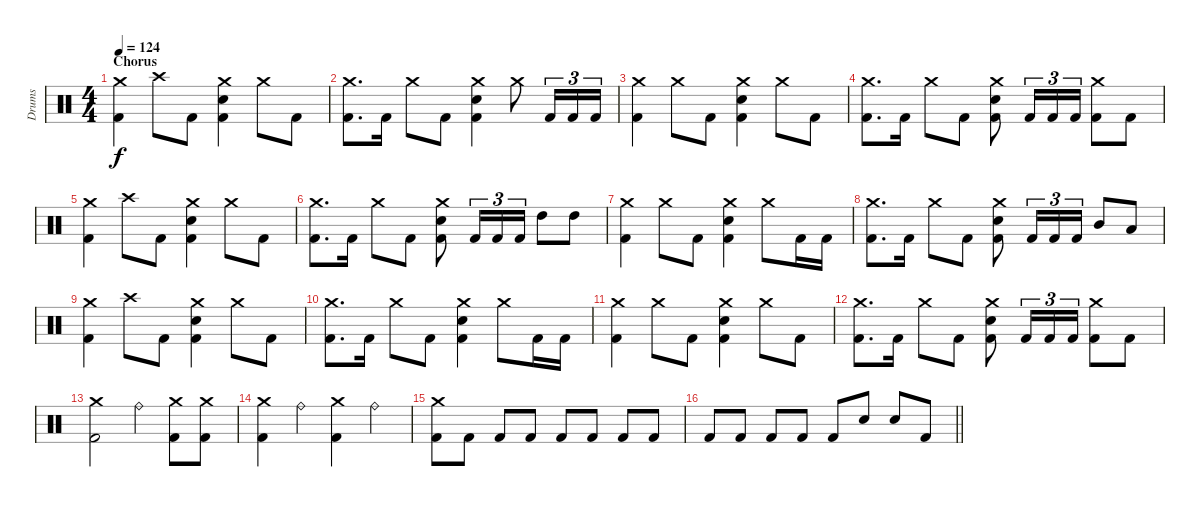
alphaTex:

\track ("Drums" "Drums") {instrument percussion}
\staff {score}
\articulation defaults
\ts (4 4)
\section ("" "Chorus")
\tempo 124
\clef neutral
\ks c
("Crash medium (hit)" "Kick (hit) 2").4{dy f} "Crash high (hit)".8 "Kick (hit) 2".8 ("Crash medium (hit)" "Electric Snare (hit)" "Kick (hit) 2").4 "Crash medium (hit)".8 "Kick (hit) 2".8 |
("Crash medium (hit)" "Kick (hit) 2").8{d} "Kick (hit) 2".16 "Crash medium (hit)".8 "Kick (hit) 2".8 ("Crash medium (hit)" "Electric Snare (hit)" "Kick (hit) 2").4 "Crash medium (hit)".8 "Kick (hit) 2".16{tu (3 2)} "Kick (hit) 2".16{tu (3 2)} "Kick (hit) 2".16{tu (3 2)} |
("Crash medium (hit)" "Kick (hit) 2").4 "Crash medium (hit)".8 "Kick (hit) 2".8 ("Crash medium (hit)" "Electric Snare (hit)" "Kick (hit) 2").4 "Crash medium (hit)".8 "Kick (hit) 2".8 |
("Crash medium (hit)" "Kick (hit) 2").8{d} "Kick (hit) 2".16 "Crash medium (hit)".8 "Kick (hit) 2".8 ("Crash medium (hit)" "Electric Snare (hit)" "Kick (hit) 2").8 "Kick (hit) 2".16{tu (3 2)} "Kick (hit) 2".16{tu (3 2)} "Kick (hit) 2".16{tu (3 2)} ("Crash medium (hit)" "Kick (hit) 2").8 "Kick (hit) 2".8 |
("Crash medium (hit)" "Kick (hit) 2").4 "Crash high (hit)".8 "Kick (hit) 2".8 ("Crash medium (hit)" "Electric Snare (hit)" "Kick (hit) 2").4 "Crash medium (hit)".8 "Kick (hit) 2".8 |
("Crash medium (hit)" "Kick (hit) 2").8{d} "Kick (hit) 2".16 "Crash medium (hit)".8 "Kick (hit) 2".8 ("Crash medium (hit)" "Electric Snare (hit)" "Kick (hit) 2").8 "Kick (hit) 2".16{tu (3 2)} "Kick (hit) 2".16{tu (3 2)} "Kick (hit) 2".16{tu (3 2)} "High Tom (hit)".8 "High Tom (hit)".8 |
("Crash medium (hit)" "Kick (hit) 2").4 "Crash medium (hit)".8 "Kick (hit) 2".8 ("Crash medium (hit)" "Electric Snare (hit)" "Kick (hit) 2").4 "Crash medium (hit)".8 "Kick (hit) 2".16 "Kick (hit) 2".16 |
("Crash medium (hit)" "Kick (hit) 2").8{d} "Kick (hit) 2".16 "Crash medium (hit)".8 "Kick (hit) 2".8 ("Crash medium (hit)" "Electric Snare (hit)" "Kick (hit) 2").8 "Kick (hit) 2".16{tu (3 2)} "Kick (hit) 2".16{tu (3 2)} "Kick (hit) 2".16{tu (3 2)} "Mid Tom (hit)".8 "Low Tom (hit)".8 |
("Crash medium (hit)" "Kick (hit) 2").4 "Crash high (hit)".8 "Kick (hit) 2".8 ("Crash medium (hit)" "Electric Snare (hit)" "Kick (hit) 2").4 "Crash medium (hit)".8 "Kick (hit) 2".8 |
("Crash medium (hit)" "Kick (hit) 2").8{d} "Kick (hit) 2".16 "Crash medium (hit)".8 "Kick (hit) 2".8 ("Crash medium (hit)" "Electric Snare (hit)" "Kick (hit) 2").4 "Crash medium (hit)".8 "Kick (hit) 2".16 "Kick (hit) 2".16 |
("Crash medium (hit)" "Kick (hit) 2").4 "Crash medium (hit)".8 "Kick (hit) 2".8 ("Crash medium (hit)" "Electric Snare (hit)" "Kick (hit) 2").4 "Crash medium (hit)".8 "Kick (hit) 2".8 |
("Crash medium (hit)" "Kick (hit) 2").8{d} "Kick (hit) 2".16 "Crash medium (hit)".8 "Kick (hit) 2".8 ("Crash medium (hit)" "Electric Snare (hit)" "Kick (hit) 2").8 "Kick (hit) 2".16{tu (3 2)} "Kick (hit) 2".16{tu (3 2)} "Kick (hit) 2".16{tu (3 2)} ("Crash medium (hit)" "Kick (hit) 2").8 "Kick (hit) 2".8 |
("Crash medium (hit)" "Kick (hit) 2").2 "Ride (bell)".4 ("Crash medium (hit)" "Kick (hit) 2").8 ("Crash medium (hit)" "Kick (hit) 2").8 |
("Crash medium (hit)" "Kick (hit) 2").4 "Ride (bell)".4 ("Crash medium (hit)" "Kick (hit) 2").4 "Ride (bell)".4 |
("Crash medium (hit)" "Kick (hit) 2").8 "Kick (hit) 2".8 "Kick (hit) 2".8 "Kick (hit) 2".8 "Kick (hit) 2".8 "Kick (hit) 2".8 "Kick (hit) 2".8 "Kick (hit) 2".8 |
\barLineRight lightlight "Kick (hit) 2".8 "Kick (hit) 2".8 "Kick (hit) 2".8 "Kick (hit) 2".8 "Kick (hit) 2".8 "Electric Snare (hit)".8 "Electric Snare (hit)".8 "Kick (hit) 2".8
